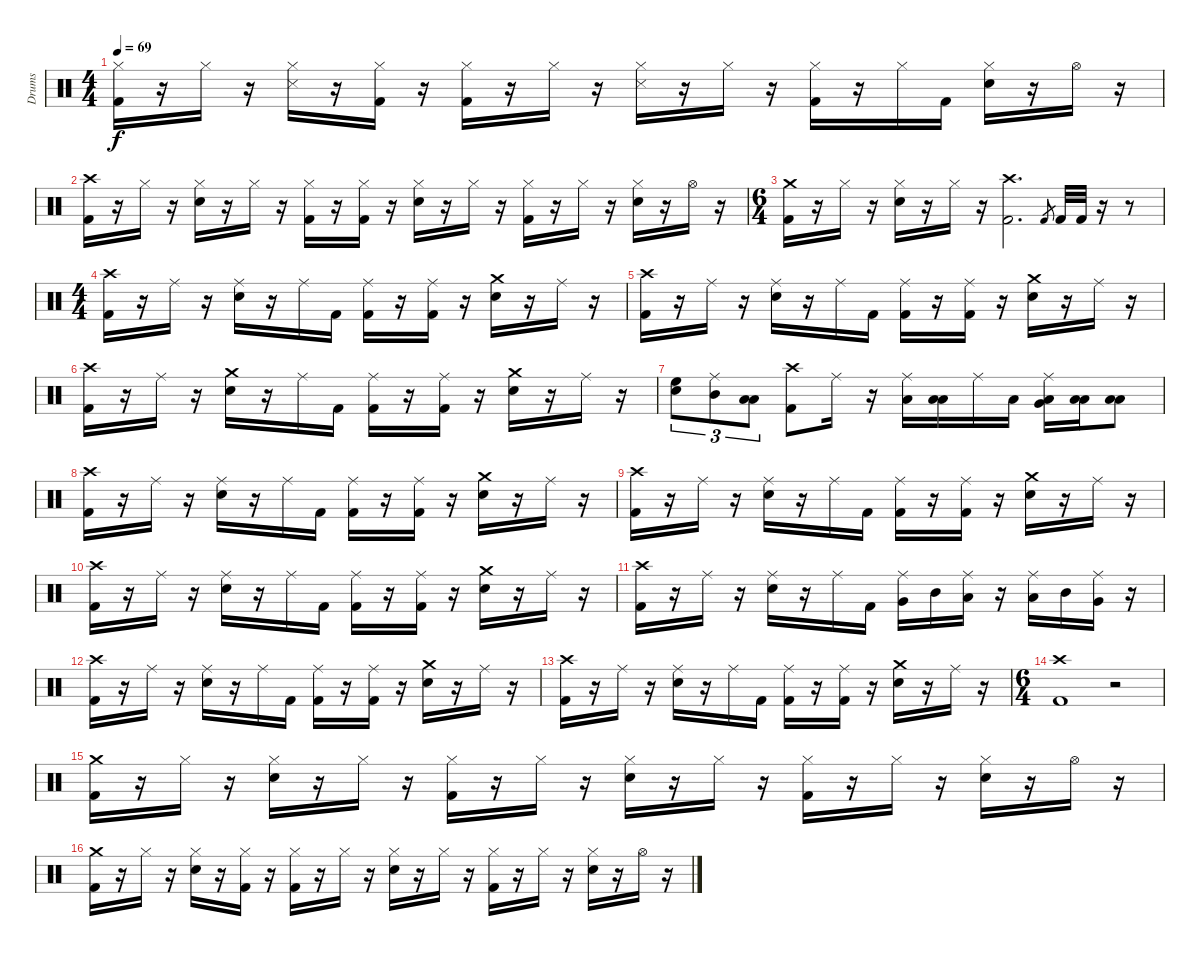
\track ("Drums" "Drums") {instrument percussion}
\staff {score}
\articulation defaults
\ts (4 4)
\tempo 69
\clef neutral
\ks c
("Hi-Hat (closed)" "Kick (hit) 2").16{dy f} r.16 "Hi-Hat (closed)".16 r.16 ("Hi-Hat (closed)" "Snare (side stick) 3").16 r.16 ("Hi-Hat (closed)" "Kick (hit) 2").16 r.16 ("Hi-Hat (closed)" "Kick (hit) 2").16 r.16 "Hi-Hat (closed)".16 r.16 ("Hi-Hat (closed)" "Snare (side stick) 3").16 r.16 "Hi-Hat (closed)".16 r.16 ("Hi-Hat (closed)" "Kick (hit) 2").16 r.16 "Hi-Hat (closed)".16 "Kick (hit) 2".16 ("Hi-Hat (closed)" "Snare (hit) 2").16 r.16 "Hi-Hat (open)".16 r.16 |
("Crash high (hit)" "Kick (hit) 2").16 r.16 "Hi-Hat (closed)".16 r.16 ("Hi-Hat (closed)" "Snare (hit) 2").16 r.16 "Hi-Hat (closed)".16 r.16 ("Hi-Hat (closed)" "Kick (hit) 2").16 r.16 ("Hi-Hat (closed)" "Kick (hit) 2").16 r.16 ("Hi-Hat (closed)" "Snare (hit) 2").16 r.16 "Hi-Hat (closed)".16 r.16 ("Hi-Hat (closed)" "Kick (hit) 2").16 r.16 "Hi-Hat (closed)".16 r.16 ("Hi-Hat (closed)" "Snare (hit) 2").16 r.16 "Hi-Hat (open)".16 r.16 |
\ts (6 4)
("Crash medium (hit)" "Kick (hit) 2").16 r.16 "Hi-Hat (closed)".16 r.16 ("Hi-Hat (closed)" "Snare (hit) 2").16 r.16 "Hi-Hat (closed)".16 r.16 ("Crash high (hit)" "Kick (hit) 2").2{d} "Kick (hit) 2".8{gr} "Kick (hit) 2".32 "Kick (hit) 2".32 r.16 r.8 |
\ts (4 4)
("Crash high (hit)" "Kick (hit) 2").16 r.16 "Ride (middle)".16 r.16 ("Ride (middle)" "Snare (hit) 2").16 r.16 "Ride (middle)".16 "Kick (hit) 2".16 ("Ride (middle)" "Kick (hit) 2").16 r.16 ("Ride (middle)" "Kick (hit) 2").16 r.16 ("Crash medium (hit)" "Snare (hit) 2").16 r.16 "Ride (middle)".16 r.16 |
("Crash high (hit)" "Kick (hit) 2").16 r.16 "Ride (middle)".16 r.16 ("Ride (middle)" "Snare (hit) 2").16 r.16 "Ride (middle)".16 "Kick (hit) 2".16 ("Ride (middle)" "Kick (hit) 2").16 r.16 ("Ride (middle)" "Kick (hit) 2").16 r.16 ("Crash medium (hit)" "Snare (hit) 2").16 r.16 "Ride (middle)".16 r.16 |
("Crash high (hit)" "Kick (hit) 2").16 r.16 "Ride (middle)".16 r.16 ("Crash medium (hit)" "Snare (hit) 2").16 r.16 "Ride (middle)".16 "Kick (hit) 2".16 ("Ride (middle)" "Kick (hit) 2").16 r.16 ("Ride (middle)" "Kick (hit) 2").16 r.16 ("Crash medium (hit)" "Snare (hit) 2").16 r.16 "Ride (middle)".16 r.16 |
("High Floor Tom (hit)" "Snare (hit) 2").8{tu (3 2)} ("Ride (middle)" "Mid Tom (hit)").8{tu (3 2)} ("Low Tom (hit)" "Low Tom (hit)").8{tu (3 2)} ("Crash high (hit)" "Kick (hit) 2").8 "Ride (middle)".16 r.16 ("Low Floor Tom (hit)" "Ride (middle)").16 ("Low Floor Tom (hit)" "Low Tom (hit)").16 "Ride (middle)".16 "Low Tom (hit)".16 ("Ride (middle)" "Low Floor Tom (hit)" "Very Low Tom (hit)").16 ("Low Floor Tom (hit)" "Low Tom (hit)").16 ("Low Floor Tom (hit)" "Low Floor Tom (hit)").8 |
("Crash high (hit)" "Kick (hit) 2").16 r.16 "Ride (middle)".16 r.16 ("Ride (middle)" "Snare (hit) 2").16 r.16 "Ride (middle)".16 "Kick (hit) 2".16 ("Ride (middle)" "Kick (hit) 2").16 r.16 ("Ride (middle)" "Kick (hit) 2").16 r.16 ("Crash medium (hit)" "Snare (hit) 2").16 r.16 "Ride (middle)".16 r.16 |
("Crash high (hit)" "Kick (hit) 2").16 r.16 "Ride (middle)".16 r.16 ("Ride (middle)" "Snare (hit) 2").16 r.16 "Ride (middle)".16 "Kick (hit) 2".16 ("Ride (middle)" "Kick (hit) 2").16 r.16 ("Ride (middle)" "Kick (hit) 2").16 r.16 ("Crash medium (hit)" "Snare (hit) 2").16 r.16 "Ride (middle)".16 r.16 |
("Crash high (hit)" "Kick (hit) 2").16 r.16 "Ride (middle)".16 r.16 ("Ride (middle)" "Snare (hit) 2").16 r.16 "Ride (middle)".16 "Kick (hit) 2".16 ("Ride (middle)" "Kick (hit) 2").16 r.16 ("Ride (middle)" "Kick (hit) 2").16 r.16 ("Crash medium (hit)" "Snare (hit) 2").16 r.16 "Ride (middle)".16 r.16 |
("Crash high (hit)" "Kick (hit) 2").16 r.16 "Ride (middle)".16 r.16 ("Ride (middle)" "Snare (hit) 2").16 r.16 "Ride (middle)".16 "Kick (hit) 2".16 ("Ride (middle)" "Very Low Tom (hit)").16 "Mid Tom (hit)".16 ("Ride (middle)" "Low Tom (hit)").16 r.16 ("Ride (middle)" "Low Tom (hit)").16 "Mid Tom (hit)".16 ("Ride (middle)" "Very Low Tom (hit)").16 r.16 |
("Crash high (hit)" "Kick (hit) 2").16 r.16 "Ride (middle)".16 r.16 ("Ride (middle)" "Snare (hit) 2").16 r.16 "Ride (middle)".16 "Kick (hit) 2".16 ("Ride (middle)" "Kick (hit) 2").16 r.16 ("Ride (middle)" "Kick (hit) 2").16 r.16 ("Crash medium (hit)" "Snare (hit) 2").16 r.16 "Ride (middle)".16 r.16 |
("Crash high (hit)" "Kick (hit) 2").16 r.16 "Ride (middle)".16 r.16 ("Ride (middle)" "Snare (hit) 2").16 r.16 "Ride (middle)".16 "Kick (hit) 2".16 ("Ride (middle)" "Kick (hit) 2").16 r.16 ("Ride (middle)" "Kick (hit) 2").16 r.16 ("Crash medium (hit)" "Snare (hit) 2").16 r.16 "Ride (middle)".16 r.16 |
\ts (6 4)
("Crash high (hit)" "Kick (hit) 2").1 r.2 |
("Crash medium (hit)" "Kick (hit) 2").16 r.16 "Hi-Hat (closed)".16 r.16 ("Hi-Hat (closed)" "Snare (hit) 2").16 r.16 "Hi-Hat (closed)".16 r.16 ("Hi-Hat (closed)" "Kick (hit) 2").16 r.16 "Hi-Hat (closed)".16 r.16 ("Hi-Hat (closed)" "Snare (hit) 2").16 r.16 "Hi-Hat (closed)".16 r.16 ("Hi-Hat (closed)" "Kick (hit) 2").16 r.16 "Hi-Hat (closed)".16 r.16 ("Hi-Hat (closed)" "Snare (hit) 2").16 r.16 "Hi-Hat (open)".16 r.16 |
("Crash medium (hit)" "Kick (hit) 2").16 r.16 "Hi-Hat (closed)".16 r.16 ("Hi-Hat (closed)" "Snare (hit) 2").16 r.16 ("Hi-Hat (closed)" "Kick (hit) 2").16 r.16 ("Hi-Hat (closed)" "Kick (hit) 2").16 r.16 "Hi-Hat (closed)".16 r.16 ("Hi-Hat (closed)" "Snare (hit) 2").16 r.16 "Hi-Hat (closed)".16 r.16 ("Hi-Hat (closed)" "Kick (hit) 2").16 r.16 "Hi-Hat (closed)".16 r.16 ("Hi-Hat (closed)" "Snare (hit) 2").16 r.16 "Hi-Hat (open)".16 r.16
